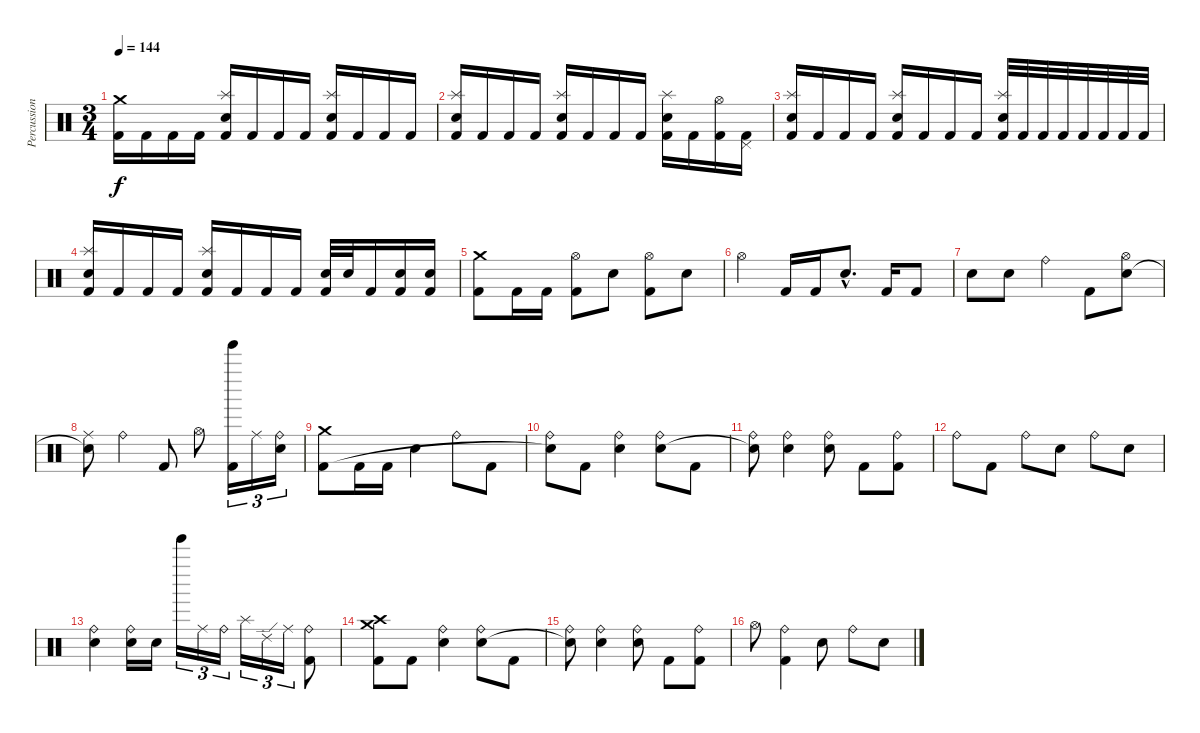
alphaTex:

\track ("Percussion" "Percussion") {instrument percussion}
\staff {score}
\articulation defaults
\ts (3 4)
\tempo 144
\clef neutral
\ks c
("Crash medium (hit)" "Kick (hit) 2").16{dy f} "Kick (hit) 2".16 "Kick (hit) 2".16 "Kick (hit) 2".16 ("Splash (hit)" "Electric Snare (hit)" "Kick (hit) 2").16 "Kick (hit) 2".16 "Kick (hit) 2".16 "Kick (hit) 2".16 ("Splash (hit)" "Electric Snare (hit)" "Kick (hit) 2").16 "Kick (hit) 2".16 "Kick (hit) 2".16 "Kick (hit) 2".16 |
("Splash (hit)" "Electric Snare (hit)" "Kick (hit) 2").16 "Kick (hit) 2".16 "Kick (hit) 2".16 "Kick (hit) 2".16 ("Splash (hit)" "Electric Snare (hit)" "Kick (hit) 2").16 "Kick (hit) 2".16 "Kick (hit) 2".16 "Kick (hit) 2".16 ("Splash (hit)" "Electric Snare (hit)" "Kick (hit) 2").16 "Kick (hit) 2".16 ("Hi-Hat (open)" "Kick (hit) 2").16 ("Pedal Hi-Hat (hit)" "Kick (hit) 2").16 |
("Splash (hit)" "Electric Snare (hit)" "Kick (hit) 2").16 "Kick (hit) 2".16 "Kick (hit) 2".16 "Kick (hit) 2".16 ("Splash (hit)" "Electric Snare (hit)" "Kick (hit) 2").16 "Kick (hit) 2".16 "Kick (hit) 2".16 "Kick (hit) 2".16 ("Splash (hit)" "Electric Snare (hit)" "Kick (hit) 2").32 "Kick (hit) 2".32 "Kick (hit) 2".32 "Kick (hit) 2".32 "Kick (hit) 2".32 "Kick (hit) 2".32 "Kick (hit) 2".32 "Kick (hit) 2".32 |
("Splash (hit)" "Electric Snare (hit)" "Kick (hit) 2").16 "Kick (hit) 2".16 "Kick (hit) 2".16 "Kick (hit) 2".16 ("Splash (hit)" "Electric Snare (hit)" "Kick (hit) 2").16 "Kick (hit) 2".16 "Kick (hit) 2".16 "Kick (hit) 2".16 ("Electric Snare (hit)" "Kick (hit) 2").32 "Electric Snare (hit)".32 "Kick (hit) 2".16 ("Electric Snare (hit)" "Kick (hit) 2").16 ("Electric Snare (hit)" "Kick (hit) 2").16 |
("Crash medium (hit)" "Kick (hit) 2").8 "Kick (hit) 2".16 "Kick (hit) 2".16 ("Hi-Hat (open)" "Kick (hit) 2").8 "Electric Snare (hit)".8 ("Hi-Hat (open)" "Kick (hit) 2").8 "Electric Snare (hit)".8 |
"Hi-Hat (open)".4 "Kick (hit) 2".16 "Kick (hit) 2".16 "Electric Snare (hit)"{hac}.8{d} "Kick (hit) 2".16 "Kick (hit) 2".8 |
"Electric Snare (hit)".8 "Electric Snare (hit)".8 "Ride (bell)".4 "Kick (hit) 2".8 ("Hi-Hat (open)" "Electric Snare (hit)").8 |
("Ride (middle)" "Snare (hit)"{t}).8 "Ride (bell)".4 "Kick (hit) 2".8 "Hi-Hat (open)".8 ("Tinkle Bell (hit)" "Kick (hit) 2").16{tu (3 2)} "Ride (middle)".16{tu (3 2)} ("Ride (bell)" "Electric Snare (hit)").16{tu (3 2)} |
("Crash medium (hit)" "Kick (hit) 2").8 "Kick (hit) 2".16 "Kick (hit) 2".16 "Electric Snare (hit)".4 "Ride (bell)".8 "Kick (hit) 2".8 |
("Ride (bell)" "Snare (hit)"{t}).8 "Kick (hit) 2".8 ("Ride (bell)" "Electric Snare (hit)").4 ("Ride (bell)" "Electric Snare (hit)").8 "Kick (hit) 2".8 |
("Ride (bell)" "Snare (hit)"{t}).8 ("Ride (bell)" "Electric Snare (hit)").4 ("Ride (bell)" "Electric Snare (hit)").8 "Kick (hit) 2".8 ("Ride (bell)" "Kick (hit) 2").8 |
"Ride (bell)".8 "Kick (hit) 2".8 "Ride (bell)".8 "Electric Snare (hit)".8 "Ride (bell)".8 "Electric Snare (hit)".8 |
("Ride (bell)" "Electric Snare (hit)").4 ("Ride (bell)" "Electric Snare (hit)").16 "Electric Snare (hit)".16 "Tinkle Bell (hit)".16{tu (3 2)} "Ride (middle)".16{tu (3 2)} "Ride (bell)".16{tu (3 2)} "Splash (hit)".16{tu (3 2)} "Ride (edge) 2".16{tu (3 2)} "Ride (middle)".16{tu (3 2)} ("Ride (bell)" "Kick (hit) 2").8 |
("Crash high (hit)" "Crash medium (hit)" "Kick (hit) 2").8 "Kick (hit) 2".8 ("Ride (bell)" "Electric Snare (hit)").4 ("Ride (bell)" "Electric Snare (hit)").8 "Kick (hit) 2".8 |
("Ride (bell)" "Snare (hit)"{t}).8 ("Ride (bell)" "Electric Snare (hit)").4 ("Ride (bell)" "Electric Snare (hit)").8 "Kick (hit) 2".8 ("Ride (bell)" "Kick (hit) 2").8 |
"Hi-Hat (open)".8 ("Ride (bell)" "Kick (hit) 2").4 "Electric Snare (hit)".8 "Ride (bell)".8 "Electric Snare (hit)".8
